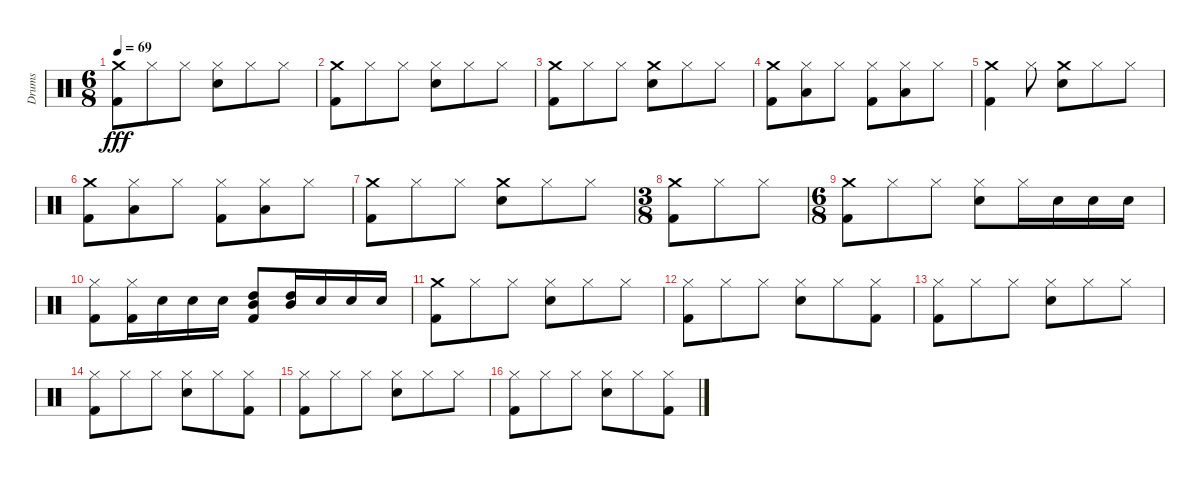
\track ("Drums" "Drums") {instrument percussion}
\staff {score}
\articulation defaults
\ts (6 8)
\tempo 69
\clef neutral
\ks c
("Kick (hit) 2" "Crash medium (hit)").8{dy fff} "Hi-Hat (closed)".8 "Hi-Hat (closed)".8 ("Snare (hit) 2" "Hi-Hat (closed)").8 "Hi-Hat (closed)".8 "Hi-Hat (closed)".8 |
("Kick (hit) 2" "Crash medium (hit)").8 "Hi-Hat (closed)".8 "Hi-Hat (closed)".8 ("Snare (hit) 2" "Hi-Hat (closed)").8 "Hi-Hat (closed)".8 "Hi-Hat (closed)".8 |
("Crash medium (hit)" "Kick (hit) 2").8 "Hi-Hat (closed)".8 "Hi-Hat (closed)".8 ("Crash medium (hit)" "Snare (hit) 2").8 "Hi-Hat (closed)".8 "Hi-Hat (closed)".8 |
("Kick (hit) 2" "Crash medium (hit)").8 ("Low Tom (hit)" "Hi-Hat (closed)").8 "Hi-Hat (closed)".8 ("Kick (hit) 2" "Hi-Hat (closed)").8 ("Hi-Hat (closed)" "Low Tom (hit)").8 "Hi-Hat (closed)".8 |
("Kick (hit) 2" "Crash medium (hit)").4 "Hi-Hat (closed)".8 ("Crash medium (hit)" "Snare (hit) 2").8 "Hi-Hat (closed)".8 "Hi-Hat (closed)".8 |
("Kick (hit) 2" "Crash medium (hit)").8 ("Low Tom (hit)" "Hi-Hat (closed)").8 "Hi-Hat (closed)".8 ("Kick (hit) 2" "Hi-Hat (closed)").8 ("Hi-Hat (closed)" "Low Tom (hit)").8 "Hi-Hat (closed)".8 |
("Kick (hit) 2" "Crash medium (hit)").8 "Hi-Hat (closed)".8 "Hi-Hat (closed)".8 ("Crash medium (hit)" "Snare (hit) 2").8 "Hi-Hat (closed)".8 "Hi-Hat (closed)".8 |
\ts (3 8)
("Crash medium (hit)" "Kick (hit) 2").8 "Hi-Hat (closed)".8 "Hi-Hat (closed)".8 |
\ts (6 8)
("Kick (hit) 2" "Crash medium (hit)").8 "Hi-Hat (closed)".8 "Hi-Hat (closed)".8 ("Snare (hit) 2" "Hi-Hat (closed)").8 "Hi-Hat (closed)".16 "Snare (hit) 2".16 "Snare (hit) 2".16 "Snare (hit) 2".16 |
("Kick (hit) 2" "Hi-Hat (closed)").8 ("Hi-Hat (closed)" "Kick (hit) 2").16 "Snare (hit) 2".16 "Snare (hit) 2".16 "Snare (hit) 2".16 ("High Tom (hit)" "Mid Tom (hit)" "Kick (hit) 2").8 ("High Tom (hit)" "Mid Tom (hit)").16 "Snare (hit) 2".16 "Snare (hit) 2".16 "Snare (hit) 2".16 |
("Kick (hit) 2" "Crash medium (hit)").8 "Hi-Hat (closed)".8 "Hi-Hat (closed)".8 ("Snare (hit) 2" "Hi-Hat (closed)").8 "Hi-Hat (closed)".8 "Hi-Hat (closed)".8 |
("Kick (hit) 2" "Hi-Hat (closed)").8 "Hi-Hat (closed)".8 "Hi-Hat (closed)".8 ("Snare (hit) 2" "Hi-Hat (closed)").8 "Hi-Hat (closed)".8 ("Kick (hit) 2" "Hi-Hat (closed)").8 |
("Hi-Hat (closed)" "Kick (hit) 2").8 "Hi-Hat (closed)".8 "Hi-Hat (closed)".8 ("Snare (hit) 2" "Hi-Hat (closed)").8 "Hi-Hat (closed)".8 "Hi-Hat (closed)".8 |
("Kick (hit) 2" "Hi-Hat (closed)").8 "Hi-Hat (closed)".8 "Hi-Hat (closed)".8 ("Snare (hit) 2" "Hi-Hat (closed)").8 "Hi-Hat (closed)".8 ("Kick (hit) 2" "Hi-Hat (closed)").8 |
("Kick (hit) 2" "Hi-Hat (closed)").8 "Hi-Hat (closed)".8 "Hi-Hat (closed)".8 ("Snare (hit) 2" "Hi-Hat (closed)").8 "Hi-Hat (closed)".8 "Hi-Hat (closed)".8 |
("Kick (hit) 2" "Hi-Hat (closed)").8 "Hi-Hat (closed)".8 "Hi-Hat (closed)".8 ("Snare (hit) 2" "Hi-Hat (closed)").8 "Hi-Hat (closed)".8 ("Kick (hit) 2" "Hi-Hat (closed)").8
